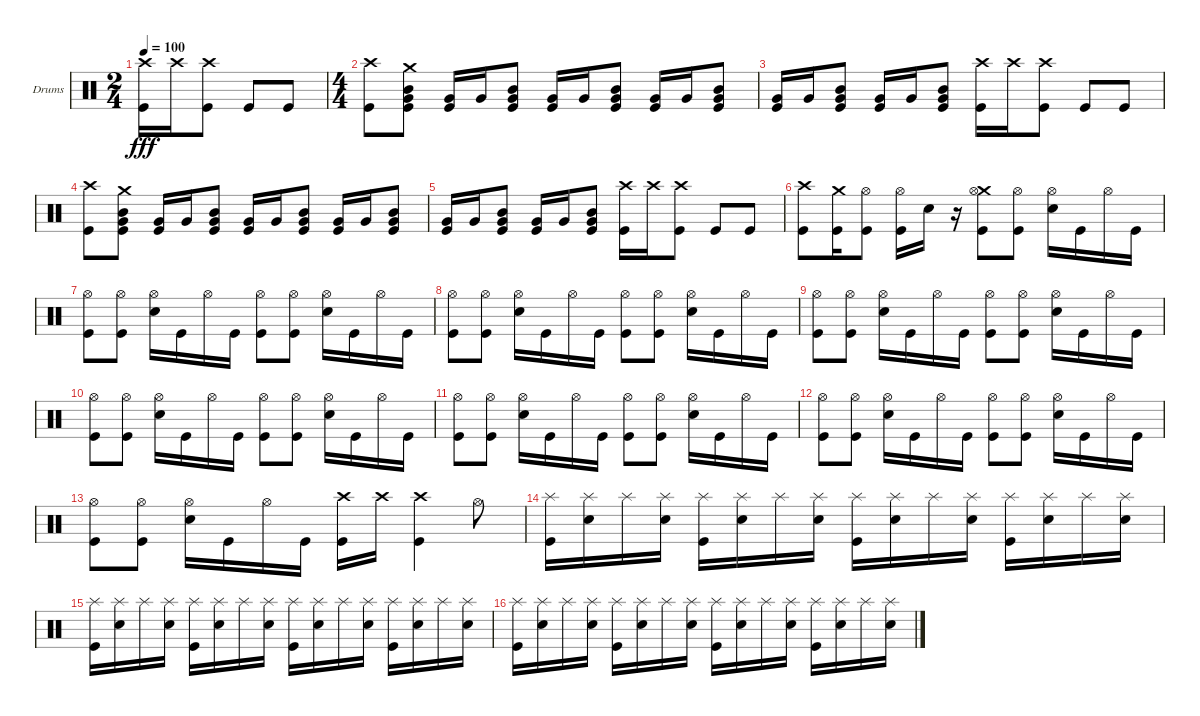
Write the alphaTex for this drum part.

\bracketExtendMode groupsimilarinstruments
\firstSystemTrackNameOrientation horizontal
\otherSystemsTrackNameOrientation horizontal
\track ("Lars Ulrich (Drum)" "Drums") {instrument percussion}
\staff {score}
\articulation defaults
\ts (2 4)
\tempo 100
\clef neutral
\scale
0.391473
\ks c
("Crash high (hit)" "Kick (hit)").16{dy fff} "Crash high (hit)".16 ("Crash high (hit)" "Kick (hit)").8 "Kick (hit)".8 "Kick (hit)".8 |
\ts (4 4)
\scale
0.391473 ("Crash high (hit)" "Kick (hit)").8 ("Crash medium (hit)" "Mid Tom (hit)" "Very Low Tom (hit)" "Kick (hit)").8 ("Very Low Tom (hit)" "Kick (hit)").16 "Very Low Tom (hit)".16 ("Mid Tom (hit)" "Very Low Tom (hit)" "Kick (hit)").8 ("Very Low Tom (hit)" "Kick (hit)").16 "Very Low Tom (hit)".16 ("Mid Tom (hit)" "Very Low Tom (hit)" "Kick (hit)").8 ("Very Low Tom (hit)" "Kick (hit)").16 "Very Low Tom (hit)".16 ("Mid Tom (hit)" "Very Low Tom (hit)" "Kick (hit)").8 |
\scale
0.333333 ("Very Low Tom (hit)" "Kick (hit)").16 "Very Low Tom (hit)".16 ("Mid Tom (hit)" "Very Low Tom (hit)" "Kick (hit)").8 ("Very Low Tom (hit)" "Kick (hit)").16 "Very Low Tom (hit)".16 ("Mid Tom (hit)" "Very Low Tom (hit)" "Kick (hit)").8 ("Crash high (hit)" "Kick (hit)").16 "Crash high (hit)".16 ("Crash high (hit)" "Kick (hit)").8 "Kick (hit)".8 "Kick (hit)".8 |
\scale
0.333333 ("Crash high (hit)" "Kick (hit)").8 ("Crash medium (hit)" "Mid Tom (hit)" "Very Low Tom (hit)" "Kick (hit)").8 ("Very Low Tom (hit)" "Kick (hit)").16 "Very Low Tom (hit)".16 ("Mid Tom (hit)" "Very Low Tom (hit)" "Kick (hit)").8 ("Very Low Tom (hit)" "Kick (hit)").16 "Very Low Tom (hit)".16 ("Mid Tom (hit)" "Very Low Tom (hit)" "Kick (hit)").8 ("Very Low Tom (hit)" "Kick (hit)").16 "Very Low Tom (hit)".16 ("Mid Tom (hit)" "Very Low Tom (hit)" "Kick (hit)").8 |
\scale
0.333333 ("Very Low Tom (hit)" "Kick (hit)").16 "Very Low Tom (hit)".16 ("Mid Tom (hit)" "Very Low Tom (hit)" "Kick (hit)").8 ("Very Low Tom (hit)" "Kick (hit)").16 "Very Low Tom (hit)".16 ("Mid Tom (hit)" "Very Low Tom (hit)" "Kick (hit)").8 ("Crash high (hit)" "Kick (hit)").16 "Crash high (hit)".16 ("Crash high (hit)" "Kick (hit)").8 "Kick (hit)".8 "Kick (hit)".8 |
\scale
0.333333 ("Crash high (hit)" "Kick (hit)").8 ("Crash medium (hit)" "Kick (hit)").16 ("Hi-Hat (open)" "Kick (hit)").8 ("Hi-Hat (open)" "Kick (hit)").16 "Snare (hit) 2".16 r.16 ("Crash medium (hit)" "Hi-Hat (open)" "Kick (hit)").8 ("Hi-Hat (open)" "Kick (hit)").8 ("Hi-Hat (open)" "Snare (hit) 2").16 "Kick (hit)".16 "Hi-Hat (open)".16 "Kick (hit)".16 |
\scale
0.333333 ("Hi-Hat (open)" "Kick (hit)").8 ("Hi-Hat (open)" "Kick (hit)").8 ("Hi-Hat (open)" "Snare (hit) 2").16 "Kick (hit)".16 "Hi-Hat (open)".16 "Kick (hit)".16 ("Hi-Hat (open)" "Kick (hit)").8 ("Hi-Hat (open)" "Kick (hit)").8 ("Hi-Hat (open)" "Snare (hit) 2").16 "Kick (hit)".16 "Hi-Hat (open)".16 "Kick (hit)".16 |
\scale
0.333333 ("Hi-Hat (open)" "Kick (hit)").8 ("Hi-Hat (open)" "Kick (hit)").8 ("Hi-Hat (open)" "Snare (hit) 2").16 "Kick (hit)".16 "Hi-Hat (open)".16 "Kick (hit)".16 ("Hi-Hat (open)" "Kick (hit)").8 ("Hi-Hat (open)" "Kick (hit)").8 ("Hi-Hat (open)" "Snare (hit) 2").16 "Kick (hit)".16 "Hi-Hat (open)".16 "Kick (hit)".16 |
\scale
0.333333 ("Hi-Hat (open)" "Kick (hit)").8 ("Hi-Hat (open)" "Kick (hit)").8 ("Hi-Hat (open)" "Snare (hit) 2").16 "Kick (hit)".16 "Hi-Hat (open)".16 "Kick (hit)".16 ("Hi-Hat (open)" "Kick (hit)").8 ("Hi-Hat (open)" "Kick (hit)").8 ("Hi-Hat (open)" "Snare (hit) 2").16 "Kick (hit)".16 "Hi-Hat (open)".16 "Kick (hit)".16 |
\scale
0.333333 ("Hi-Hat (open)" "Kick (hit)").8 ("Hi-Hat (open)" "Kick (hit)").8 ("Hi-Hat (open)" "Snare (hit) 2").16 "Kick (hit)".16 "Hi-Hat (open)".16 "Kick (hit)".16 ("Hi-Hat (open)" "Kick (hit)").8 ("Hi-Hat (open)" "Kick (hit)").8 ("Hi-Hat (open)" "Snare (hit) 2").16 "Kick (hit)".16 "Hi-Hat (open)".16 "Kick (hit)".16 |
\scale
0.333333 ("Hi-Hat (open)" "Kick (hit)").8 ("Hi-Hat (open)" "Kick (hit)").8 ("Hi-Hat (open)" "Snare (hit) 2").16 "Kick (hit)".16 "Hi-Hat (open)".16 "Kick (hit)".16 ("Hi-Hat (open)" "Kick (hit)").8 ("Hi-Hat (open)" "Kick (hit)").8 ("Hi-Hat (open)" "Snare (hit) 2").16 "Kick (hit)".16 "Hi-Hat (open)".16 "Kick (hit)".16 |
\scale
0.333333 ("Hi-Hat (open)" "Kick (hit)").8 ("Hi-Hat (open)" "Kick (hit)").8 ("Hi-Hat (open)" "Snare (hit) 2").16 "Kick (hit)".16 "Hi-Hat (open)".16 "Kick (hit)".16 ("Hi-Hat (open)" "Kick (hit)").8 ("Hi-Hat (open)" "Kick (hit)").8 ("Hi-Hat (open)" "Snare (hit) 2").16 "Kick (hit)".16 "Hi-Hat (open)".16 "Kick (hit)".16 |
\scale
0.333333 ("Hi-Hat (open)" "Kick (hit)").8 ("Hi-Hat (open)" "Kick (hit)").8 ("Hi-Hat (open)" "Snare (hit) 2").16 "Kick (hit)".16 "Hi-Hat (open)".16 "Kick (hit)".16 ("Crash high (hit)" "Kick (hit)").16 "Crash high (hit)".16 ("Crash high (hit)" "Kick (hit)").4 "Hi-Hat (open)".8 |
\scale
0.333333 ("Splash (hit)" "Kick (hit)").16 ("Splash (hit)" "Snare (hit) 2").16 "Splash (hit)".16 ("Splash (hit)" "Snare (hit) 2").16 ("Splash (hit)" "Kick (hit)").16 ("Splash (hit)" "Snare (hit) 2").16 "Splash (hit)".16 ("Splash (hit)" "Snare (hit) 2").16 ("Splash (hit)" "Kick (hit)").16 ("Splash (hit)" "Snare (hit) 2").16 "Splash (hit)".16 ("Splash (hit)" "Snare (hit) 2").16 ("Splash (hit)" "Kick (hit)").16 ("Splash (hit)" "Snare (hit) 2").16 "Splash (hit)".16 ("Splash (hit)" "Snare (hit) 2").16 |
\scale
0.333333 ("Splash (hit)" "Kick (hit)").16 ("Splash (hit)" "Snare (hit) 2").16 "Splash (hit)".16 ("Splash (hit)" "Snare (hit) 2").16 ("Splash (hit)" "Kick (hit)").16 ("Splash (hit)" "Snare (hit) 2").16 "Splash (hit)".16 ("Splash (hit)" "Snare (hit) 2").16 ("Splash (hit)" "Kick (hit)").16 ("Splash (hit)" "Snare (hit) 2").16 "Splash (hit)".16 ("Splash (hit)" "Snare (hit) 2").16 ("Splash (hit)" "Kick (hit)").16 ("Splash (hit)" "Snare (hit) 2").16 "Splash (hit)".16 ("Splash (hit)" "Snare (hit) 2").16 |
\scale
0.333333 ("Splash (hit)" "Kick (hit)").16 ("Splash (hit)" "Snare (hit) 2").16 "Splash (hit)".16 ("Splash (hit)" "Snare (hit) 2").16 ("Splash (hit)" "Kick (hit)").16 ("Splash (hit)" "Snare (hit) 2").16 "Splash (hit)".16 ("Splash (hit)" "Snare (hit) 2").16 ("Splash (hit)" "Kick (hit)").16 ("Splash (hit)" "Snare (hit) 2").16 "Splash (hit)".16 ("Splash (hit)" "Snare (hit) 2").16 ("Splash (hit)" "Kick (hit)").16 ("Splash (hit)" "Snare (hit) 2").16 "Splash (hit)".16 ("Splash (hit)" "Snare (hit) 2").16
